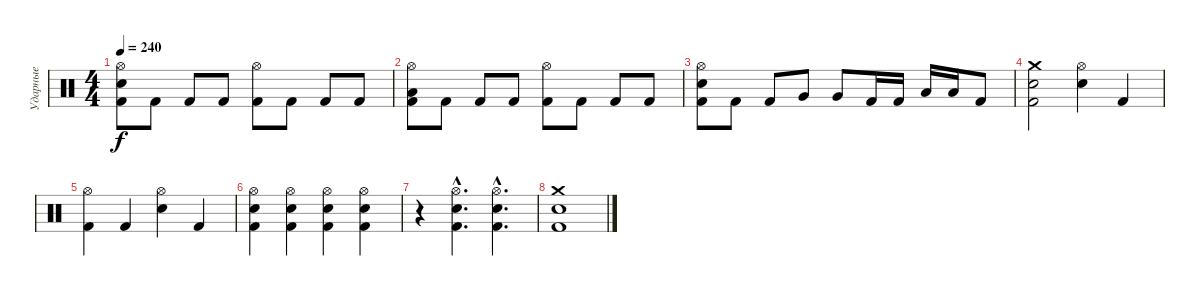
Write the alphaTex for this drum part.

\track ("Ударные" "Ударные") {instrument percussion}
\staff {score}
\articulation defaults
\ts (4 4)
\tempo 240
\clef neutral
\ks c
("Hi-Hat (open)" "Snare (hit) 2" "Kick (hit) 2").8{dy f} "Kick (hit) 2".8 "Kick (hit) 2".8 "Kick (hit) 2".8 ("Hi-Hat (open)" "Kick (hit) 2").8 "Kick (hit) 2".8 "Kick (hit) 2".8 "Kick (hit) 2".8 |
("Hi-Hat (open)" "Low Tom (hit)" "Kick (hit) 2").8 "Kick (hit) 2".8 "Kick (hit) 2".8 "Kick (hit) 2".8 ("Hi-Hat (open)" "Kick (hit) 2").8 "Kick (hit) 2".8 "Kick (hit) 2".8 "Kick (hit) 2".8 |
("Hi-Hat (open)" "Snare (hit) 2" "Kick (hit) 2").8 "Kick (hit) 2".8 "Kick (hit) 2".8 "Very Low Tom (hit)".8 "Very Low Tom (hit)".8 "Kick (hit) 2".16 "Kick (hit) 2".16 "Low Tom (hit)".16 "Low Tom (hit)".16 "Kick (hit) 2".8 |
("Crash medium (hit)" "Snare (hit) 2" "Kick (hit) 2").2 ("Hi-Hat (open)" "Snare (hit) 2").4 "Kick (hit) 2".4 |
("Hi-Hat (open)" "Kick (hit) 2").4 "Kick (hit) 2".4 ("Hi-Hat (open)" "Snare (hit) 2").4 "Kick (hit) 2".4 |
("Hi-Hat (open)" "Snare (hit) 2" "Kick (hit) 2").4 ("Hi-Hat (open)" "Snare (hit) 2" "Kick (hit) 2").4 ("Hi-Hat (open)" "Snare (hit) 2" "Kick (hit) 2").4 ("Hi-Hat (open)" "Snare (hit) 2" "Kick (hit) 2").4 |
r.4 ("Hi-Hat (open)"{hac} "Snare (hit) 2"{hac} "Kick (hit) 2"{hac}).4{d} ("Hi-Hat (open)"{hac} "Snare (hit) 2"{hac} "Kick (hit) 2"{hac}).4{d} |
("Snare (hit) 2" "Kick (hit) 2" "Crash medium (hit)").1
